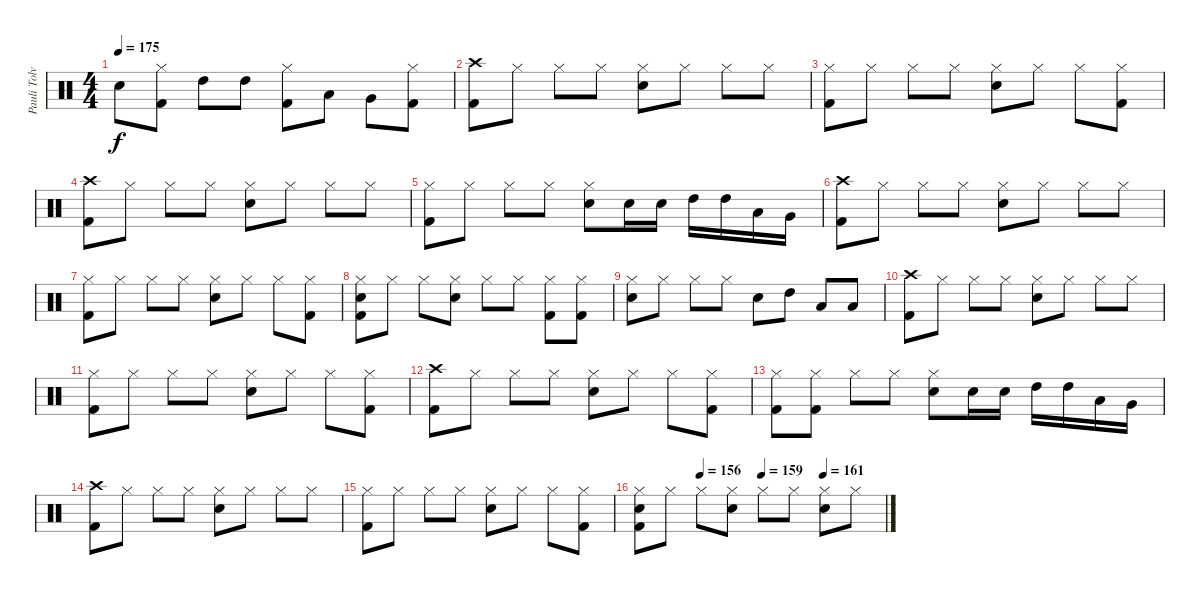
\track ("Pauli Tolvanen-Drums" "Pauli Tolv") {instrument percussion}
\staff {score}
\articulation defaults
\ts (4 4)
\tempo 175
\clef neutral
\ks c "Snare (hit) 2".8{dy f}
("Hi-Hat (closed)" "Kick (hit) 2").8 "High Tom (hit)".8 "High Tom (hit)".8 ("Hi-Hat (closed)" "Kick (hit) 2").8 "Low Tom (hit)".8 "Very Low Tom (hit)".8 ("Hi-Hat (closed)" "Kick (hit) 2").8 |
("Crash high (hit)" "Kick (hit) 2").8 "Hi-Hat (closed)".8 "Hi-Hat (closed)".8 "Hi-Hat (closed)".8 ("Hi-Hat (closed)" "Snare (hit) 2").8 "Hi-Hat (closed)".8 "Hi-Hat (closed)".8 "Hi-Hat (closed)".8 |
("Hi-Hat (closed)" "Kick (hit) 2").8 "Hi-Hat (closed)".8 "Hi-Hat (closed)".8 "Hi-Hat (closed)".8 ("Hi-Hat (closed)" "Snare (hit) 2").8 "Hi-Hat (closed)".8 "Hi-Hat (closed)".8 ("Hi-Hat (closed)" "Kick (hit) 2").8 |
("Crash high (hit)" "Kick (hit) 2").8 "Hi-Hat (closed)".8 "Hi-Hat (closed)".8 "Hi-Hat (closed)".8 ("Hi-Hat (closed)" "Snare (hit) 2").8 "Hi-Hat (closed)".8 "Hi-Hat (closed)".8 "Hi-Hat (closed)".8 |
("Hi-Hat (closed)" "Kick (hit) 2").8 "Hi-Hat (closed)".8 "Hi-Hat (closed)".8 "Hi-Hat (closed)".8 ("Hi-Hat (closed)" "Snare (hit) 2").8 "Snare (hit) 2".16 "Snare (hit) 2".16 "High Tom (hit)".16 "High Tom (hit)".16 "Low Tom (hit)".16 "Very Low Tom (hit)".16 |
("Crash high (hit)" "Kick (hit) 2").8 "Hi-Hat (closed)".8 "Hi-Hat (closed)".8 "Hi-Hat (closed)".8 ("Hi-Hat (closed)" "Snare (hit) 2").8 "Hi-Hat (closed)".8 "Hi-Hat (closed)".8 "Hi-Hat (closed)".8 |
("Hi-Hat (closed)" "Kick (hit) 2").8 "Hi-Hat (closed)".8 "Hi-Hat (closed)".8 "Hi-Hat (closed)".8 ("Hi-Hat (closed)" "Snare (hit) 2").8 "Hi-Hat (closed)".8 "Hi-Hat (closed)".8 ("Hi-Hat (closed)" "Kick (hit) 2").8 |
("Hi-Hat (closed)" "Snare (hit) 2" "Kick (hit) 2").8 "Hi-Hat (closed)".8 "Hi-Hat (closed)".8 ("Hi-Hat (closed)" "Snare (hit) 2").8 "Hi-Hat (closed)".8 "Hi-Hat (closed)".8 ("Hi-Hat (closed)" "Kick (hit) 2").8 ("Hi-Hat (closed)" "Kick (hit) 2").8 |
("Hi-Hat (closed)" "Snare (hit) 2").8 "Hi-Hat (closed)".8 "Hi-Hat (closed)".8 "Hi-Hat (closed)".8 "Snare (hit) 2".8 "High Tom (hit)".8 "Low Tom (hit)".8 "Low Floor Tom (hit)".8 |
("Crash high (hit)" "Kick (hit) 2").8 "Hi-Hat (closed)".8 "Hi-Hat (closed)".8 "Hi-Hat (closed)".8 ("Hi-Hat (closed)" "Snare (hit) 2").8 "Hi-Hat (closed)".8 "Hi-Hat (closed)".8 "Hi-Hat (closed)".8 |
("Hi-Hat (closed)" "Kick (hit) 2").8 "Hi-Hat (closed)".8 "Hi-Hat (closed)".8 "Hi-Hat (closed)".8 ("Hi-Hat (closed)" "Snare (hit) 2").8 "Hi-Hat (closed)".8 "Hi-Hat (closed)".8 ("Hi-Hat (closed)" "Kick (hit) 2").8 |
("Crash high (hit)" "Kick (hit) 2").8 "Hi-Hat (closed)".8 "Hi-Hat (closed)".8 "Hi-Hat (closed)".8 ("Hi-Hat (closed)" "Snare (hit) 2").8 "Hi-Hat (closed)".8 "Hi-Hat (closed)".8 ("Hi-Hat (closed)" "Kick (hit) 2").8 |
("Hi-Hat (closed)" "Kick (hit) 2").8 ("Hi-Hat (closed)" "Kick (hit) 2").8 "Hi-Hat (closed)".8 "Hi-Hat (closed)".8 ("Hi-Hat (closed)" "Snare (hit) 2").8 "Snare (hit) 2".16 "Snare (hit) 2".16 "High Tom (hit)".16 "High Tom (hit)".16 "Low Tom (hit)".16 "Very Low Tom (hit)".16 |
("Crash high (hit)" "Kick (hit) 2").8 "Hi-Hat (closed)".8 "Hi-Hat (closed)".8 "Hi-Hat (closed)".8 ("Hi-Hat (closed)" "Snare (hit) 2").8 "Hi-Hat (closed)".8 "Hi-Hat (closed)".8 "Hi-Hat (closed)".8 |
("Hi-Hat (closed)" "Kick (hit) 2").8 "Hi-Hat (closed)".8 "Hi-Hat (closed)".8 "Hi-Hat (closed)".8 ("Hi-Hat (closed)" "Snare (hit) 2").8 "Hi-Hat (closed)".8 "Hi-Hat (closed)".8 ("Hi-Hat (closed)" "Kick (hit) 2").8 |
\tempo (156 0.25)
\tempo (159 0.5)
\tempo (161 0.75)
("Hi-Hat (closed)" "Snare (hit) 2" "Kick (hit) 2").8 "Hi-Hat (closed)".8 "Hi-Hat (closed)".8 ("Hi-Hat (closed)" "Snare (hit) 2").8 "Hi-Hat (closed)".8 "Hi-Hat (closed)".8 ("Hi-Hat (closed)" "Snare (hit) 2").8 "Hi-Hat (closed)".8
